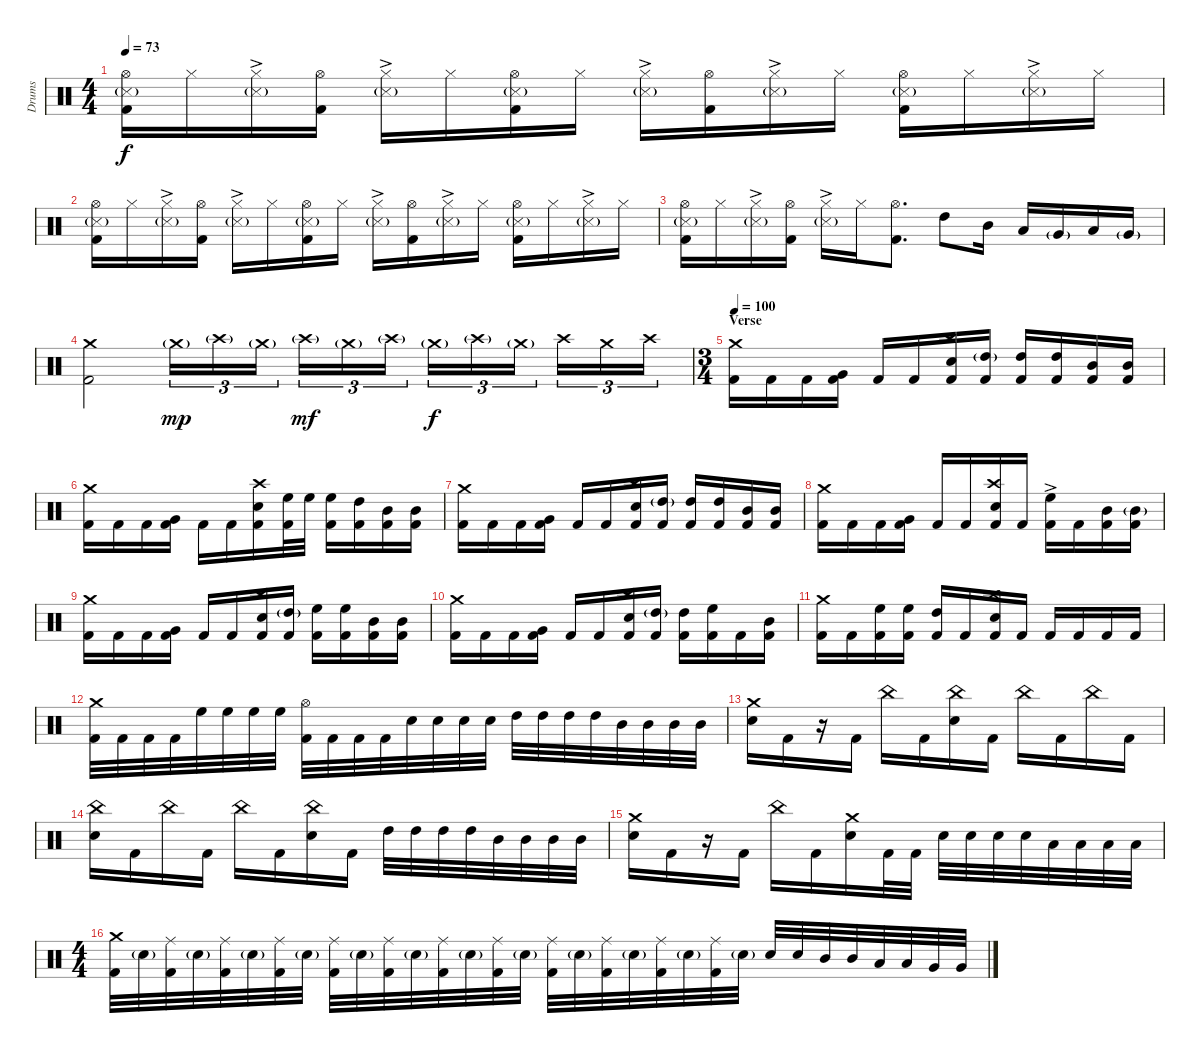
\track ("Drums" "Drums") {instrument percussion}
\staff {score}
\articulation defaults
\ts (4 4)
\tempo 73
\clef neutral
\ks c
("Hi-Hat (open)" "Snare (side stick) 3"{g} "Kick (hit) 2").16{dy f} "Hi-Hat (closed)".16 ("Hi-Hat (closed)"{ac} "Snare (side stick) 3"{g}).16 ("Hi-Hat (open)" "Kick (hit) 2").16 ("Hi-Hat (closed)"{ac} "Snare (side stick) 3"{g}).16 "Hi-Hat (closed)".16 ("Hi-Hat (open)" "Snare (side stick) 3"{g} "Kick (hit) 2").16 "Hi-Hat (closed)".16 ("Hi-Hat (closed)"{ac} "Snare (side stick) 3"{g}).16 ("Hi-Hat (open)" "Kick (hit) 2").16 ("Hi-Hat (closed)"{ac} "Snare (side stick) 3"{g}).16 "Hi-Hat (closed)".16 ("Hi-Hat (open)" "Snare (side stick) 3"{g} "Kick (hit) 2").16 "Hi-Hat (closed)".16 ("Hi-Hat (closed)"{ac} "Snare (side stick) 3"{g}).16 "Hi-Hat (closed)".16 |
("Hi-Hat (open)" "Snare (side stick) 3"{g} "Kick (hit) 2").16 "Hi-Hat (closed)".16 ("Hi-Hat (closed)"{ac} "Snare (side stick) 3"{g}).16 ("Hi-Hat (open)" "Kick (hit) 2").16 ("Hi-Hat (closed)"{ac} "Snare (side stick) 3"{g}).16 "Hi-Hat (closed)".16 ("Hi-Hat (open)" "Snare (side stick) 3"{g} "Kick (hit) 2").16 "Hi-Hat (closed)".16 ("Hi-Hat (closed)"{ac} "Snare (side stick) 3"{g}).16 ("Hi-Hat (open)" "Kick (hit) 2").16 ("Hi-Hat (closed)"{ac} "Snare (side stick) 3"{g}).16 "Hi-Hat (closed)".16 ("Hi-Hat (open)" "Snare (side stick) 3"{g} "Kick (hit) 2").16 "Hi-Hat (closed)".16 ("Hi-Hat (closed)"{ac} "Snare (side stick) 3"{g}).16 "Hi-Hat (closed)".16 |
("Hi-Hat (open)" "Snare (side stick) 3"{g} "Kick (hit) 2").16 "Hi-Hat (closed)".16 ("Hi-Hat (closed)"{ac} "Snare (side stick) 3"{g}).16 ("Hi-Hat (open)" "Kick (hit) 2").16 ("Hi-Hat (closed)"{ac} "Snare (side stick) 3"{g}).16 "Hi-Hat (closed)".16 ("Hi-Hat (open)" "Kick (hit) 2").8{d} "High Tom (hit)".8 "Mid Tom (hit)".16 "Low Tom (hit)".16 "Very Low Tom (hit)"{g}.16 "Low Tom (hit)".16 "Very Low Tom (hit)"{g}.16 |
("Crash medium (hit)" "Kick (hit) 2").2 "Crash medium (hit)"{g}.16{tu (3 2) dy mp} "Crash high (hit)"{g}.16{tu (3 2)} "Crash medium (hit)"{g}.16{tu (3 2)} "Crash high (hit)"{g}.16{tu (3 2) dy mf} "Crash medium (hit)"{g}.16{tu (3 2)} "Crash high (hit)"{g}.16{tu (3 2)} "Crash medium (hit)"{g}.16{tu (3 2) dy f} "Crash high (hit)"{g}.16{tu (3 2)} "Crash medium (hit)"{g}.16{tu (3 2)} "Crash high (hit)".16{tu (3 2)} "Crash medium (hit)".16{tu (3 2)} "Crash high (hit)".16{tu (3 2)} |
\ts (3 4)
\section ("" "Verse")
\tempo 100
("Crash medium (hit)" "Kick (hit) 2").16 "Kick (hit) 2".16 "Kick (hit) 2".16 ("Very Low Tom (hit)" "Kick (hit) 2").16 "Kick (hit) 2".16 "Kick (hit) 2".16 ("Crash high (hit)" "Snare (hit) 2" "Kick (hit) 2").16 ("High Tom (hit)"{g} "Kick (hit) 2").16 ("High Tom (hit)" "Kick (hit) 2").16 ("High Tom (hit)" "Kick (hit) 2").16 ("Mid Tom (hit)" "Kick (hit) 2").16 ("Mid Tom (hit)" "Kick (hit) 2").16 |
("Crash medium (hit)" "Kick (hit) 2").16 "Kick (hit) 2".16 "Kick (hit) 2".16 ("Very Low Tom (hit)" "Kick (hit) 2").16 "Kick (hit) 2".16 "Kick (hit) 2".16 ("Crash high (hit)" "Snare (hit) 2" "Kick (hit) 2").16 ("High Floor Tom (hit)" "Kick (hit) 2").32 "High Floor Tom (hit)".32 ("High Floor Tom (hit)" "Kick (hit) 2").16 ("High Tom (hit)" "Kick (hit) 2").16 ("Mid Tom (hit)" "Kick (hit) 2").16 ("Mid Tom (hit)" "Kick (hit) 2").16 |
("Crash medium (hit)" "Kick (hit) 2").16 "Kick (hit) 2".16 "Kick (hit) 2".16 ("Very Low Tom (hit)" "Kick (hit) 2").16 "Kick (hit) 2".16 "Kick (hit) 2".16 ("Crash high (hit)" "Snare (hit) 2" "Kick (hit) 2").16 ("High Tom (hit)"{g} "Kick (hit) 2").16 ("High Tom (hit)" "Kick (hit) 2").16 ("High Tom (hit)" "Kick (hit) 2").16 ("Mid Tom (hit)" "Kick (hit) 2").16 ("Mid Tom (hit)" "Kick (hit) 2").16 |
("Crash medium (hit)" "Kick (hit) 2").16 "Kick (hit) 2".16 "Kick (hit) 2".16 ("Very Low Tom (hit)" "Kick (hit) 2").16 "Kick (hit) 2".16 "Kick (hit) 2".16 ("Crash high (hit)" "Snare (hit) 2" "Kick (hit) 2").16 "Kick (hit) 2".16 ("High Floor Tom (hit)"{ac} "Kick (hit) 2").16 "Kick (hit) 2".16 ("Mid Tom (hit)" "Kick (hit) 2").16 ("Mid Tom (hit)"{g} "Kick (hit) 2").16 |
("Crash medium (hit)" "Kick (hit) 2").16 "Kick (hit) 2".16 "Kick (hit) 2".16 ("Very Low Tom (hit)" "Kick (hit) 2").16 "Kick (hit) 2".16 "Kick (hit) 2".16 ("Crash high (hit)" "Snare (hit) 2" "Kick (hit) 2").16 ("High Tom (hit)"{g} "Kick (hit) 2").16 ("High Floor Tom (hit)" "Kick (hit) 2").16 ("High Floor Tom (hit)" "Kick (hit) 2").16 ("Mid Tom (hit)" "Kick (hit) 2").16 ("Mid Tom (hit)" "Kick (hit) 2").16 |
("Crash medium (hit)" "Kick (hit) 2").16 "Kick (hit) 2".16 "Kick (hit) 2".16 ("Very Low Tom (hit)" "Kick (hit) 2").16 "Kick (hit) 2".16 "Kick (hit) 2".16 ("Crash high (hit)" "Snare (hit) 2" "Kick (hit) 2").16 ("High Tom (hit)"{g} "Kick (hit) 2").16 ("High Tom (hit)" "Kick (hit) 2").16 ("High Floor Tom (hit)" "Kick (hit) 2").16 "Kick (hit) 2".16 ("Mid Tom (hit)" "Kick (hit) 2").16 |
("Crash medium (hit)" "Kick (hit) 2").16 "Kick (hit) 2".16 ("High Floor Tom (hit)" "Kick (hit) 2").16 ("High Floor Tom (hit)" "Kick (hit) 2").16 ("High Tom (hit)" "Kick (hit) 2").16 "Kick (hit) 2".16 ("Crash high (hit)" "Snare (hit) 2" "Kick (hit) 2").16 "Kick (hit) 2".16 "Kick (hit) 2".16 "Kick (hit) 2".16 "Kick (hit) 2".16 "Kick (hit) 2".16 |
("Crash medium (hit)" "Kick (hit) 2").32 "Kick (hit) 2".32 "Kick (hit) 2".32 "Kick (hit) 2".32 "High Floor Tom (hit)".32 "High Floor Tom (hit)".32 "High Floor Tom (hit)".32 "High Floor Tom (hit)".32 ("Hi-Hat (open)" "Kick (hit) 2").32 "Kick (hit) 2".32 "Kick (hit) 2".32 "Kick (hit) 2".32 "Snare (hit) 2".32 "Snare (hit) 2".32 "Snare (hit) 2".32 "Snare (hit) 2".32 "High Tom (hit)".32 "High Tom (hit)".32 "High Tom (hit)".32 "High Tom (hit)".32 "Mid Tom (hit)".32 "Mid Tom (hit)".32 "Mid Tom (hit)".32 "Mid Tom (hit)".32 |
("Crash medium (hit)" "Snare (hit) 2").16 "Kick (hit) 2".16 r.16 "Kick (hit) 2".16 "China (hit)".16 "Kick (hit) 2".16 ("China (hit)" "Snare (hit) 2").16 "Kick (hit) 2".16 "China (hit)".16 "Kick (hit) 2".16 "China (hit)".16 "Kick (hit) 2".16 |
("China (hit)" "Snare (hit) 2").16 "Kick (hit) 2".16 "China (hit)".16 "Kick (hit) 2".16 "China (hit)".16 "Kick (hit) 2".16 ("China (hit)" "Snare (hit) 2").16 "Kick (hit) 2".16 "High Tom (hit)".32 "High Tom (hit)".32 "High Tom (hit)".32 "High Tom (hit)".32 "Mid Tom (hit)".32 "Mid Tom (hit)".32 "Mid Tom (hit)".32 "Mid Tom (hit)".32 |
("Crash medium (hit)" "Snare (hit) 2").16 "Kick (hit) 2".16 r.16 "Kick (hit) 2".16 "China (hit)".16 "Kick (hit) 2".16 ("Crash medium (hit)" "Snare (hit) 2").16 "Kick (hit) 2".32 "Kick (hit) 2".32 "Snare (hit) 2".32 "Snare (hit) 2".32 "Snare (hit) 2".32 "Snare (hit) 2".32 "Low Tom (hit)".32 "Low Tom (hit)".32 "Low Tom (hit)".32 "Low Tom (hit)".32 |
\ts (4 4)
("Crash medium (hit)" "Kick (hit) 2").32 "Snare (hit) 2"{g}.32 ("Ride (middle)" "Kick (hit) 2").32 "Snare (hit) 2"{g}.32 ("Ride (middle)" "Kick (hit) 2").32 "Snare (hit) 2"{g}.32 ("Ride (middle)" "Kick (hit) 2").32 "Snare (hit) 2"{g}.32 ("Ride (middle)" "Kick (hit) 2").32 "Snare (hit) 2"{g}.32 ("Ride (middle)" "Kick (hit) 2").32 "Snare (hit) 2"{g}.32 ("Ride (middle)" "Kick (hit) 2").32 "Snare (hit) 2"{g}.32 ("Ride (middle)" "Kick (hit) 2").32 "Snare (hit) 2"{g}.32 ("Ride (middle)" "Kick (hit) 2").32 "Snare (hit) 2"{g}.32 ("Ride (middle)" "Kick (hit) 2").32 "Snare (hit) 2"{g}.32 ("Ride (middle)" "Kick (hit) 2").32 "Snare (hit) 2"{g}.32 ("Ride (middle)" "Kick (hit) 2").32 "Snare (hit) 2"{g}.32 "Snare (hit) 2".32 "Snare (hit) 2".32 "Mid Tom (hit)".32 "Mid Tom (hit)".32 "Low Tom (hit)".32 "Low Tom (hit)".32 "Very Low Tom (hit)".32 "Very Low Tom (hit)".32
